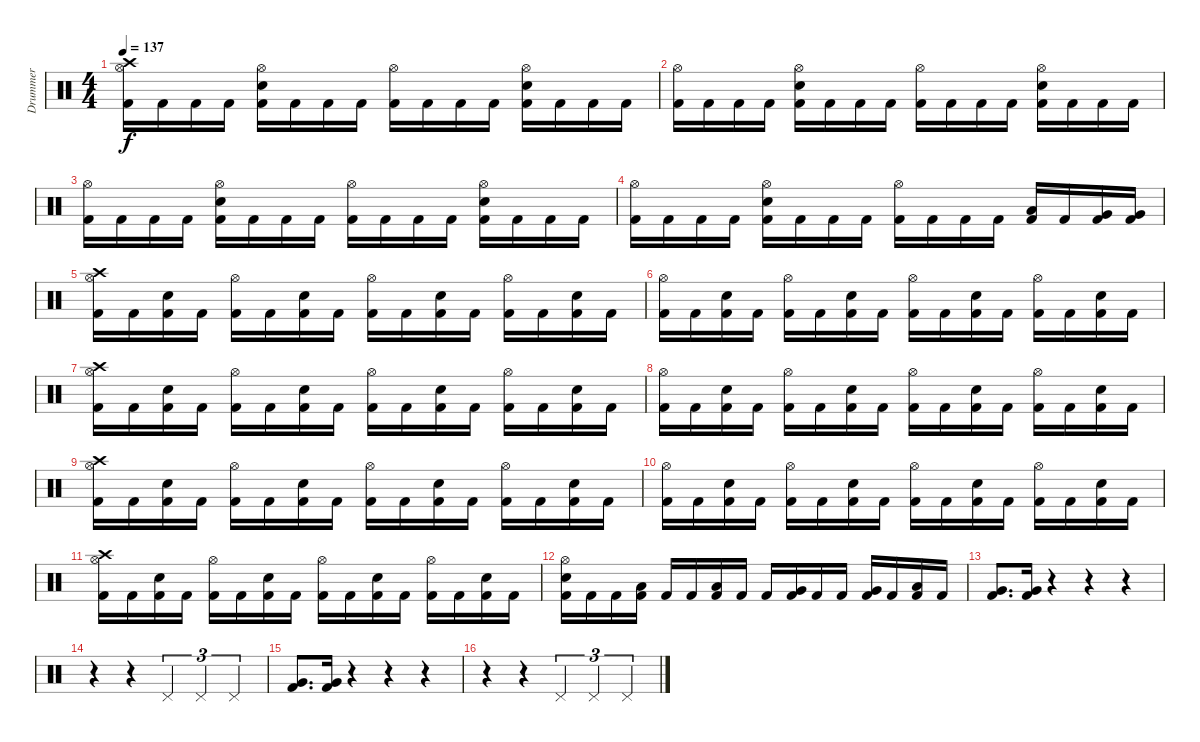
\track ("Drummer" "Drummer") {instrument percussion}
\staff {score}
\articulation defaults
\ts (4 4)
\tempo 137
\clef neutral
\ks c
("Crash high (hit)" "Hi-Hat (open)" "Kick (hit) 2").16{dy f} "Kick (hit) 2".16 "Kick (hit) 2".16 "Kick (hit) 2".16 ("Electric Snare (hit)" "Hi-Hat (open)" "Kick (hit) 2").16 "Kick (hit) 2".16 "Kick (hit) 2".16 "Kick (hit) 2".16 ("Hi-Hat (open)" "Kick (hit) 2").16 "Kick (hit) 2".16 "Kick (hit) 2".16 "Kick (hit) 2".16 ("Electric Snare (hit)" "Hi-Hat (open)" "Kick (hit) 2").16 "Kick (hit) 2".16 "Kick (hit) 2".16 "Kick (hit) 2".16 |
("Hi-Hat (open)" "Kick (hit) 2").16 "Kick (hit) 2".16 "Kick (hit) 2".16 "Kick (hit) 2".16 ("Electric Snare (hit)" "Hi-Hat (open)" "Kick (hit) 2").16 "Kick (hit) 2".16 "Kick (hit) 2".16 "Kick (hit) 2".16 ("Hi-Hat (open)" "Kick (hit) 2").16 "Kick (hit) 2".16 "Kick (hit) 2".16 "Kick (hit) 2".16 ("Electric Snare (hit)" "Hi-Hat (open)" "Kick (hit) 2").16 "Kick (hit) 2".16 "Kick (hit) 2".16 "Kick (hit) 2".16 |
("Hi-Hat (open)" "Kick (hit) 2").16 "Kick (hit) 2".16 "Kick (hit) 2".16 "Kick (hit) 2".16 ("Electric Snare (hit)" "Hi-Hat (open)" "Kick (hit) 2").16 "Kick (hit) 2".16 "Kick (hit) 2".16 "Kick (hit) 2".16 ("Hi-Hat (open)" "Kick (hit) 2").16 "Kick (hit) 2".16 "Kick (hit) 2".16 "Kick (hit) 2".16 ("Electric Snare (hit)" "Hi-Hat (open)" "Kick (hit) 2").16 "Kick (hit) 2".16 "Kick (hit) 2".16 "Kick (hit) 2".16 |
("Hi-Hat (open)" "Kick (hit) 2").16 "Kick (hit) 2".16 "Kick (hit) 2".16 "Kick (hit) 2".16 ("Electric Snare (hit)" "Hi-Hat (open)" "Kick (hit) 2").16 "Kick (hit) 2".16 "Kick (hit) 2".16 "Kick (hit) 2".16 ("Hi-Hat (open)" "Kick (hit) 2").16 "Kick (hit) 2".16 "Kick (hit) 2".16 "Kick (hit) 2".16 ("Low Tom (hit)" "Kick (hit) 2").16 "Kick (hit) 2".16 ("Very Low Tom (hit)" "Kick (hit) 2").16 ("Very Low Tom (hit)" "Kick (hit) 2").16 |
("Crash high (hit)" "Hi-Hat (open)" "Kick (hit) 2").16 "Kick (hit) 2".16 ("Electric Snare (hit)" "Kick (hit) 2").16 "Kick (hit) 2".16 ("Hi-Hat (open)" "Kick (hit) 2").16 "Kick (hit) 2".16 ("Electric Snare (hit)" "Kick (hit) 2").16 "Kick (hit) 2".16 ("Hi-Hat (open)" "Kick (hit) 2").16 "Kick (hit) 2".16 ("Electric Snare (hit)" "Kick (hit) 2").16 "Kick (hit) 2".16 ("Hi-Hat (open)" "Kick (hit) 2").16 "Kick (hit) 2".16 ("Electric Snare (hit)" "Kick (hit) 2").16 "Kick (hit) 2".16 |
("Hi-Hat (open)" "Kick (hit) 2").16 "Kick (hit) 2".16 ("Electric Snare (hit)" "Kick (hit) 2").16 "Kick (hit) 2".16 ("Hi-Hat (open)" "Kick (hit) 2").16 "Kick (hit) 2".16 ("Electric Snare (hit)" "Kick (hit) 2").16 "Kick (hit) 2".16 ("Hi-Hat (open)" "Kick (hit) 2").16 "Kick (hit) 2".16 ("Electric Snare (hit)" "Kick (hit) 2").16 "Kick (hit) 2".16 ("Hi-Hat (open)" "Kick (hit) 2").16 "Kick (hit) 2".16 ("Electric Snare (hit)" "Kick (hit) 2").16 "Kick (hit) 2".16 |
("Crash high (hit)" "Hi-Hat (open)" "Kick (hit) 2").16 "Kick (hit) 2".16 ("Electric Snare (hit)" "Kick (hit) 2").16 "Kick (hit) 2".16 ("Hi-Hat (open)" "Kick (hit) 2").16 "Kick (hit) 2".16 ("Electric Snare (hit)" "Kick (hit) 2").16 "Kick (hit) 2".16 ("Hi-Hat (open)" "Kick (hit) 2").16 "Kick (hit) 2".16 ("Electric Snare (hit)" "Kick (hit) 2").16 "Kick (hit) 2".16 ("Hi-Hat (open)" "Kick (hit) 2").16 "Kick (hit) 2".16 ("Electric Snare (hit)" "Kick (hit) 2").16 "Kick (hit) 2".16 |
("Hi-Hat (open)" "Kick (hit) 2").16 "Kick (hit) 2".16 ("Electric Snare (hit)" "Kick (hit) 2").16 "Kick (hit) 2".16 ("Hi-Hat (open)" "Kick (hit) 2").16 "Kick (hit) 2".16 ("Electric Snare (hit)" "Kick (hit) 2").16 "Kick (hit) 2".16 ("Hi-Hat (open)" "Kick (hit) 2").16 "Kick (hit) 2".16 ("Electric Snare (hit)" "Kick (hit) 2").16 "Kick (hit) 2".16 ("Hi-Hat (open)" "Kick (hit) 2").16 "Kick (hit) 2".16 ("Electric Snare (hit)" "Kick (hit) 2").16 "Kick (hit) 2".16 |
("Crash high (hit)" "Hi-Hat (open)" "Kick (hit) 2").16 "Kick (hit) 2".16 ("Electric Snare (hit)" "Kick (hit) 2").16 "Kick (hit) 2".16 ("Hi-Hat (open)" "Kick (hit) 2").16 "Kick (hit) 2".16 ("Electric Snare (hit)" "Kick (hit) 2").16 "Kick (hit) 2".16 ("Hi-Hat (open)" "Kick (hit) 2").16 "Kick (hit) 2".16 ("Electric Snare (hit)" "Kick (hit) 2").16 "Kick (hit) 2".16 ("Hi-Hat (open)" "Kick (hit) 2").16 "Kick (hit) 2".16 ("Electric Snare (hit)" "Kick (hit) 2").16 "Kick (hit) 2".16 |
("Hi-Hat (open)" "Kick (hit) 2").16 "Kick (hit) 2".16 ("Electric Snare (hit)" "Kick (hit) 2").16 "Kick (hit) 2".16 ("Hi-Hat (open)" "Kick (hit) 2").16 "Kick (hit) 2".16 ("Electric Snare (hit)" "Kick (hit) 2").16 "Kick (hit) 2".16 ("Hi-Hat (open)" "Kick (hit) 2").16 "Kick (hit) 2".16 ("Electric Snare (hit)" "Kick (hit) 2").16 "Kick (hit) 2".16 ("Hi-Hat (open)" "Kick (hit) 2").16 "Kick (hit) 2".16 ("Electric Snare (hit)" "Kick (hit) 2").16 "Kick (hit) 2".16 |
("Crash high (hit)" "Hi-Hat (open)" "Kick (hit) 2").16 "Kick (hit) 2".16 ("Electric Snare (hit)" "Kick (hit) 2").16 "Kick (hit) 2".16 ("Hi-Hat (open)" "Kick (hit) 2").16 "Kick (hit) 2".16 ("Electric Snare (hit)" "Kick (hit) 2").16 "Kick (hit) 2".16 ("Hi-Hat (open)" "Kick (hit) 2").16 "Kick (hit) 2".16 ("Electric Snare (hit)" "Kick (hit) 2").16 "Kick (hit) 2".16 ("Hi-Hat (open)" "Kick (hit) 2").16 "Kick (hit) 2".16 ("Electric Snare (hit)" "Kick (hit) 2").16 "Kick (hit) 2".16 |
("Electric Snare (hit)" "Hi-Hat (open)" "Kick (hit) 2").16 "Kick (hit) 2".16 "Kick (hit) 2".16 ("Low Tom (hit)" "Kick (hit) 2").16 "Kick (hit) 2".16 "Kick (hit) 2".16 ("Low Tom (hit)" "Kick (hit) 2").16 "Kick (hit) 2".16 "Kick (hit) 2".16 ("Very Low Tom (hit)" "Kick (hit) 2").16 "Kick (hit) 2".16 "Kick (hit) 2".16 ("Very Low Tom (hit)" "Kick (hit) 2").16 "Kick (hit) 2".16 ("Low Floor Tom (hit)" "Kick (hit) 2").16 "Kick (hit) 2".16 |
("Kick (hit) 2" "Very Low Tom (hit)").8{d} ("Kick (hit) 2" "Very Low Tom (hit)").16 r.4 r.4 r.4 |
r.4 r.4 "Pedal Hi-Hat (hit)".4{tu (3 2)} "Pedal Hi-Hat (hit)".4{tu (3 2)} "Pedal Hi-Hat (hit)".4{tu (3 2)} |
("Kick (hit) 2" "Very Low Tom (hit)").8{d} ("Kick (hit) 2" "Very Low Tom (hit)").16 r.4 r.4 r.4 |
r.4 r.4 "Pedal Hi-Hat (hit)".4{tu (3 2)} "Pedal Hi-Hat (hit)".4{tu (3 2)} "Pedal Hi-Hat (hit)".4{tu (3 2)}
